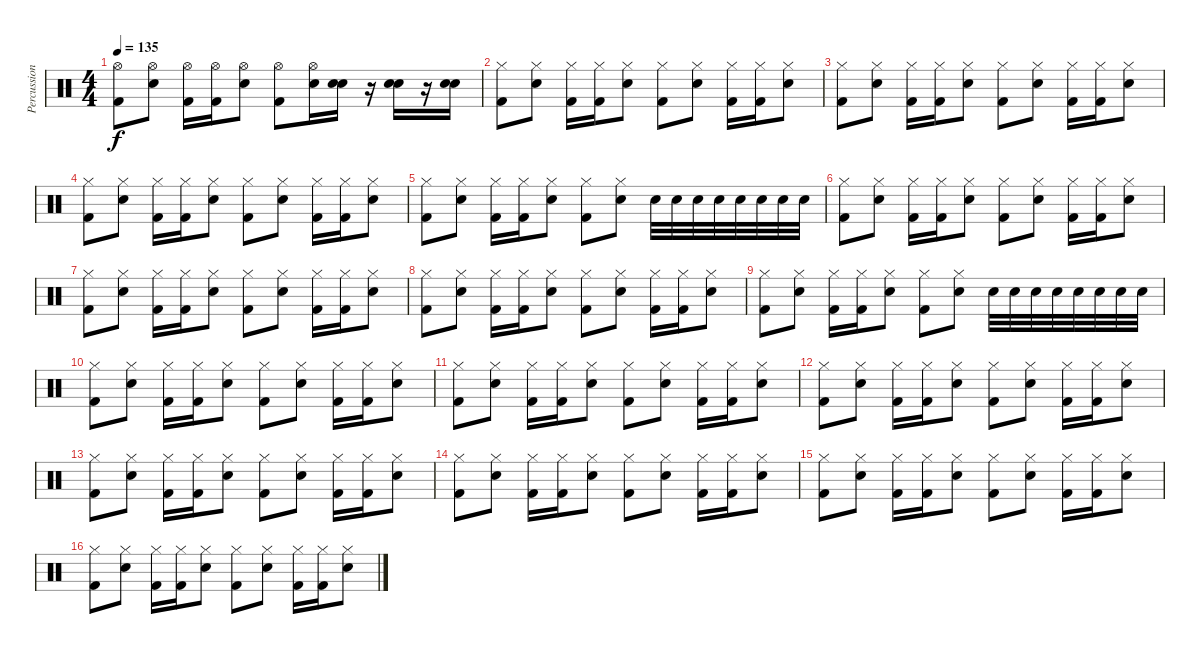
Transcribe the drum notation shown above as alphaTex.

\track ("Percussion" "Percussion") {instrument percussion}
\staff {score}
\articulation defaults
\ts (4 4)
\tempo 135
\clef neutral
\ks c
("Hi-Hat (open)" "Kick (hit) 2").8{dy f} ("Hi-Hat (open)" "Electric Snare (hit)").8 ("Hi-Hat (open)" "Kick (hit) 2").16 ("Hi-Hat (open)" "Kick (hit) 2").16 ("Hi-Hat (open)" "Electric Snare (hit)").8 ("Hi-Hat (open)" "Kick (hit) 2").8 ("Hi-Hat (open)" "Snare (hit)").16 ("Electric Snare (hit)" "Electric Snare (hit)").16 r.16 ("Electric Snare (hit)" "Electric Snare (hit)").16 r.16 ("Electric Snare (hit)" "Electric Snare (hit)").16 |
("Hi-Hat (closed)" "Kick (hit) 2").8 ("Hi-Hat (closed)" "Electric Snare (hit)").8 ("Hi-Hat (closed)" "Kick (hit) 2").16 ("Hi-Hat (closed)" "Kick (hit) 2").16 ("Hi-Hat (closed)" "Electric Snare (hit)").8 ("Hi-Hat (closed)" "Kick (hit) 2").8 ("Hi-Hat (closed)" "Electric Snare (hit)").8 ("Hi-Hat (closed)" "Kick (hit) 2").16 ("Hi-Hat (closed)" "Kick (hit) 2").16 ("Hi-Hat (closed)" "Electric Snare (hit)").8 |
("Hi-Hat (closed)" "Kick (hit) 2").8 ("Hi-Hat (closed)" "Electric Snare (hit)").8 ("Hi-Hat (closed)" "Kick (hit) 2").16 ("Hi-Hat (closed)" "Kick (hit) 2").16 ("Hi-Hat (closed)" "Electric Snare (hit)").8 ("Hi-Hat (closed)" "Kick (hit) 2").8 ("Hi-Hat (closed)" "Electric Snare (hit)").8 ("Hi-Hat (closed)" "Kick (hit) 2").16 ("Hi-Hat (closed)" "Kick (hit) 2").16 ("Hi-Hat (closed)" "Electric Snare (hit)").8 |
("Hi-Hat (closed)" "Kick (hit) 2").8 ("Hi-Hat (closed)" "Electric Snare (hit)").8 ("Hi-Hat (closed)" "Kick (hit) 2").16 ("Hi-Hat (closed)" "Kick (hit) 2").16 ("Hi-Hat (closed)" "Electric Snare (hit)").8 ("Hi-Hat (closed)" "Kick (hit) 2").8 ("Hi-Hat (closed)" "Electric Snare (hit)").8 ("Hi-Hat (closed)" "Kick (hit) 2").16 ("Hi-Hat (closed)" "Kick (hit) 2").16 ("Hi-Hat (closed)" "Electric Snare (hit)").8 |
("Hi-Hat (closed)" "Kick (hit) 2").8 ("Hi-Hat (closed)" "Electric Snare (hit)").8 ("Hi-Hat (closed)" "Kick (hit) 2").16 ("Hi-Hat (closed)" "Kick (hit) 2").16 ("Hi-Hat (closed)" "Electric Snare (hit)").8 ("Hi-Hat (closed)" "Kick (hit) 2").8 ("Hi-Hat (closed)" "Electric Snare (hit)").8 "Electric Snare (hit)".32 "Electric Snare (hit)".32 "Electric Snare (hit)".32 "Electric Snare (hit)".32 "Electric Snare (hit)".32 "Electric Snare (hit)".32 "Electric Snare (hit)".32 "Electric Snare (hit)".32 |
("Hi-Hat (closed)" "Kick (hit) 2").8 ("Hi-Hat (closed)" "Electric Snare (hit)").8 ("Hi-Hat (closed)" "Kick (hit) 2").16 ("Hi-Hat (closed)" "Kick (hit) 2").16 ("Hi-Hat (closed)" "Electric Snare (hit)").8 ("Hi-Hat (closed)" "Kick (hit) 2").8 ("Hi-Hat (closed)" "Electric Snare (hit)").8 ("Hi-Hat (closed)" "Kick (hit) 2").16 ("Hi-Hat (closed)" "Kick (hit) 2").16 ("Hi-Hat (closed)" "Electric Snare (hit)").8 |
("Hi-Hat (closed)" "Kick (hit) 2").8 ("Hi-Hat (closed)" "Electric Snare (hit)").8 ("Hi-Hat (closed)" "Kick (hit) 2").16 ("Hi-Hat (closed)" "Kick (hit) 2").16 ("Hi-Hat (closed)" "Electric Snare (hit)").8 ("Hi-Hat (closed)" "Kick (hit) 2").8 ("Hi-Hat (closed)" "Electric Snare (hit)").8 ("Hi-Hat (closed)" "Kick (hit) 2").16 ("Hi-Hat (closed)" "Kick (hit) 2").16 ("Hi-Hat (closed)" "Electric Snare (hit)").8 |
("Hi-Hat (closed)" "Kick (hit) 2").8 ("Hi-Hat (closed)" "Electric Snare (hit)").8 ("Hi-Hat (closed)" "Kick (hit) 2").16 ("Hi-Hat (closed)" "Kick (hit) 2").16 ("Hi-Hat (closed)" "Electric Snare (hit)").8 ("Hi-Hat (closed)" "Kick (hit) 2").8 ("Hi-Hat (closed)" "Electric Snare (hit)").8 ("Hi-Hat (closed)" "Kick (hit) 2").16 ("Hi-Hat (closed)" "Kick (hit) 2").16 ("Hi-Hat (closed)" "Electric Snare (hit)").8 |
("Hi-Hat (closed)" "Kick (hit) 2").8 ("Hi-Hat (closed)" "Electric Snare (hit)").8 ("Hi-Hat (closed)" "Kick (hit) 2").16 ("Hi-Hat (closed)" "Kick (hit) 2").16 ("Hi-Hat (closed)" "Electric Snare (hit)").8 ("Hi-Hat (closed)" "Kick (hit) 2").8 ("Hi-Hat (closed)" "Electric Snare (hit)").8 "Electric Snare (hit)".32 "Electric Snare (hit)".32 "Electric Snare (hit)".32 "Electric Snare (hit)".32 "Electric Snare (hit)".32 "Electric Snare (hit)".32 "Electric Snare (hit)".32 "Electric Snare (hit)".32 |
("Hi-Hat (closed)" "Kick (hit) 2").8 ("Hi-Hat (closed)" "Electric Snare (hit)").8 ("Hi-Hat (closed)" "Kick (hit) 2").16 ("Hi-Hat (closed)" "Kick (hit) 2").16 ("Hi-Hat (closed)" "Electric Snare (hit)").8 ("Hi-Hat (closed)" "Kick (hit) 2").8 ("Hi-Hat (closed)" "Electric Snare (hit)").8 ("Hi-Hat (closed)" "Kick (hit) 2").16 ("Hi-Hat (closed)" "Kick (hit) 2").16 ("Hi-Hat (closed)" "Electric Snare (hit)").8 |
("Hi-Hat (closed)" "Kick (hit) 2").8 ("Hi-Hat (closed)" "Electric Snare (hit)").8 ("Hi-Hat (closed)" "Kick (hit) 2").16 ("Hi-Hat (closed)" "Kick (hit) 2").16 ("Hi-Hat (closed)" "Electric Snare (hit)").8 ("Hi-Hat (closed)" "Kick (hit) 2").8 ("Hi-Hat (closed)" "Electric Snare (hit)").8 ("Hi-Hat (closed)" "Kick (hit) 2").16 ("Hi-Hat (closed)" "Kick (hit) 2").16 ("Hi-Hat (closed)" "Electric Snare (hit)").8 |
("Hi-Hat (closed)" "Kick (hit) 2").8 ("Hi-Hat (closed)" "Electric Snare (hit)").8 ("Hi-Hat (closed)" "Kick (hit) 2").16 ("Hi-Hat (closed)" "Kick (hit) 2").16 ("Hi-Hat (closed)" "Electric Snare (hit)").8 ("Hi-Hat (closed)" "Kick (hit) 2").8 ("Hi-Hat (closed)" "Electric Snare (hit)").8 ("Hi-Hat (closed)" "Kick (hit) 2").16 ("Hi-Hat (closed)" "Kick (hit) 2").16 ("Hi-Hat (closed)" "Electric Snare (hit)").8 |
("Hi-Hat (closed)" "Kick (hit) 2").8 ("Hi-Hat (closed)" "Electric Snare (hit)").8 ("Hi-Hat (closed)" "Kick (hit) 2").16 ("Hi-Hat (closed)" "Kick (hit) 2").16 ("Hi-Hat (closed)" "Electric Snare (hit)").8 ("Hi-Hat (closed)" "Kick (hit) 2").8 ("Hi-Hat (closed)" "Electric Snare (hit)").8 ("Hi-Hat (closed)" "Kick (hit) 2").16 ("Hi-Hat (closed)" "Kick (hit) 2").16 ("Hi-Hat (closed)" "Electric Snare (hit)").8 |
("Hi-Hat (closed)" "Kick (hit) 2").8 ("Hi-Hat (closed)" "Electric Snare (hit)").8 ("Hi-Hat (closed)" "Kick (hit) 2").16 ("Hi-Hat (closed)" "Kick (hit) 2").16 ("Hi-Hat (closed)" "Electric Snare (hit)").8 ("Hi-Hat (closed)" "Kick (hit) 2").8 ("Hi-Hat (closed)" "Electric Snare (hit)").8 ("Hi-Hat (closed)" "Kick (hit) 2").16 ("Hi-Hat (closed)" "Kick (hit) 2").16 ("Hi-Hat (closed)" "Electric Snare (hit)").8 |
("Hi-Hat (closed)" "Kick (hit) 2").8 ("Hi-Hat (closed)" "Electric Snare (hit)").8 ("Hi-Hat (closed)" "Kick (hit) 2").16 ("Hi-Hat (closed)" "Kick (hit) 2").16 ("Hi-Hat (closed)" "Electric Snare (hit)").8 ("Hi-Hat (closed)" "Kick (hit) 2").8 ("Hi-Hat (closed)" "Electric Snare (hit)").8 ("Hi-Hat (closed)" "Kick (hit) 2").16 ("Hi-Hat (closed)" "Kick (hit) 2").16 ("Hi-Hat (closed)" "Electric Snare (hit)").8 |
("Hi-Hat (closed)" "Kick (hit) 2").8 ("Hi-Hat (closed)" "Electric Snare (hit)").8 ("Hi-Hat (closed)" "Kick (hit) 2").16 ("Hi-Hat (closed)" "Kick (hit) 2").16 ("Hi-Hat (closed)" "Electric Snare (hit)").8 ("Hi-Hat (closed)" "Kick (hit) 2").8 ("Hi-Hat (closed)" "Electric Snare (hit)").8 ("Hi-Hat (closed)" "Kick (hit) 2").16 ("Hi-Hat (closed)" "Kick (hit) 2").16 ("Hi-Hat (closed)" "Electric Snare (hit)").8
